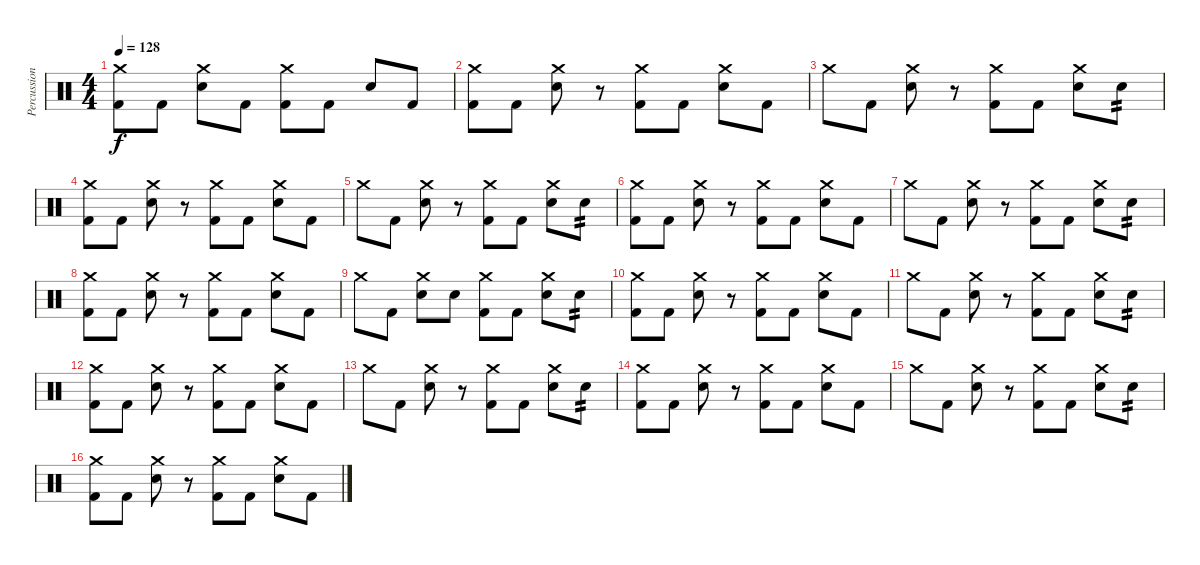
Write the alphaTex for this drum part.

\track ("Percussion" "Percussion") {instrument percussion}
\staff {score}
\articulation defaults
\ts (4 4)
\tempo 128
\clef neutral
\ks c
("Crash medium (hit)" "Kick (hit) 2").8{dy f} "Kick (hit) 2".8 ("Crash medium (hit)" "Snare (hit) 2").8 "Kick (hit) 2".8 ("Crash medium (hit)" "Kick (hit) 2").8 "Kick (hit) 2".8 "Snare (hit) 2".8 "Kick (hit) 2".8 |
("Crash medium (hit)" "Kick (hit) 2").8 "Kick (hit) 2".8 ("Crash medium (hit)" "Snare (hit) 2").8 r.8 ("Crash medium (hit)" "Kick (hit) 2").8 "Kick (hit) 2".8 ("Crash medium (hit)" "Snare (hit) 2").8 "Kick (hit) 2".8 |
"Crash medium (hit)".8 "Kick (hit) 2".8 ("Crash medium (hit)" "Snare (hit) 2").8 r.8 ("Crash medium (hit)" "Kick (hit) 2").8 "Kick (hit) 2".8 ("Crash medium (hit)" "Snare (hit) 2").8 "Snare (hit) 2".8{tp 2} |
("Crash medium (hit)" "Kick (hit) 2").8 "Kick (hit) 2".8 ("Crash medium (hit)" "Snare (hit) 2").8 r.8 ("Crash medium (hit)" "Kick (hit) 2").8 "Kick (hit) 2".8 ("Crash medium (hit)" "Snare (hit) 2").8 "Kick (hit) 2".8 |
"Crash medium (hit)".8 "Kick (hit) 2".8 ("Crash medium (hit)" "Snare (hit) 2").8 r.8 ("Crash medium (hit)" "Kick (hit) 2").8 "Kick (hit) 2".8 ("Crash medium (hit)" "Snare (hit) 2").8 "Snare (hit) 2".8{tp 2} |
("Crash medium (hit)" "Kick (hit) 2").8 "Kick (hit) 2".8 ("Crash medium (hit)" "Snare (hit) 2").8 r.8 ("Crash medium (hit)" "Kick (hit) 2").8 "Kick (hit) 2".8 ("Crash medium (hit)" "Snare (hit) 2").8 "Kick (hit) 2".8 |
"Crash medium (hit)".8 "Kick (hit) 2".8 ("Crash medium (hit)" "Snare (hit) 2").8 r.8 ("Crash medium (hit)" "Kick (hit) 2").8 "Kick (hit) 2".8 ("Crash medium (hit)" "Snare (hit) 2").8 "Snare (hit) 2".8{tp 2} |
("Crash medium (hit)" "Kick (hit) 2").8 "Kick (hit) 2".8 ("Crash medium (hit)" "Snare (hit) 2").8 r.8 ("Crash medium (hit)" "Kick (hit) 2").8 "Kick (hit) 2".8 ("Crash medium (hit)" "Snare (hit) 2").8 "Kick (hit) 2".8 |
"Crash medium (hit)".8 "Kick (hit) 2".8 ("Crash medium (hit)" "Snare (hit) 2").8 "Snare (hit) 2".8 ("Crash medium (hit)" "Kick (hit) 2").8 "Kick (hit) 2".8 ("Crash medium (hit)" "Snare (hit) 2").8 "Snare (hit) 2".8{tp 2} |
("Crash medium (hit)" "Kick (hit) 2").8 "Kick (hit) 2".8 ("Crash medium (hit)" "Snare (hit) 2").8 r.8 ("Crash medium (hit)" "Kick (hit) 2").8 "Kick (hit) 2".8 ("Crash medium (hit)" "Snare (hit) 2").8 "Kick (hit) 2".8 |
"Crash medium (hit)".8 "Kick (hit) 2".8 ("Crash medium (hit)" "Snare (hit) 2").8 r.8 ("Crash medium (hit)" "Kick (hit) 2").8 "Kick (hit) 2".8 ("Crash medium (hit)" "Snare (hit) 2").8 "Snare (hit) 2".8{tp 2} |
("Crash medium (hit)" "Kick (hit) 2").8 "Kick (hit) 2".8 ("Crash medium (hit)" "Snare (hit) 2").8 r.8 ("Crash medium (hit)" "Kick (hit) 2").8 "Kick (hit) 2".8 ("Crash medium (hit)" "Snare (hit) 2").8 "Kick (hit) 2".8 |
"Crash medium (hit)".8 "Kick (hit) 2".8 ("Crash medium (hit)" "Snare (hit) 2").8 r.8 ("Crash medium (hit)" "Kick (hit) 2").8 "Kick (hit) 2".8 ("Crash medium (hit)" "Snare (hit) 2").8 "Snare (hit) 2".8{tp 2} |
("Crash medium (hit)" "Kick (hit) 2").8 "Kick (hit) 2".8 ("Crash medium (hit)" "Snare (hit) 2").8 r.8 ("Crash medium (hit)" "Kick (hit) 2").8 "Kick (hit) 2".8 ("Crash medium (hit)" "Snare (hit) 2").8 "Kick (hit) 2".8 |
"Crash medium (hit)".8 "Kick (hit) 2".8 ("Crash medium (hit)" "Snare (hit) 2").8 r.8 ("Crash medium (hit)" "Kick (hit) 2").8 "Kick (hit) 2".8 ("Crash medium (hit)" "Snare (hit) 2").8 "Snare (hit) 2".8{tp 2} |
("Crash medium (hit)" "Kick (hit) 2").8 "Kick (hit) 2".8 ("Crash medium (hit)" "Snare (hit) 2").8 r.8 ("Crash medium (hit)" "Kick (hit) 2").8 "Kick (hit) 2".8 ("Crash medium (hit)" "Snare (hit) 2").8 "Kick (hit) 2".8
